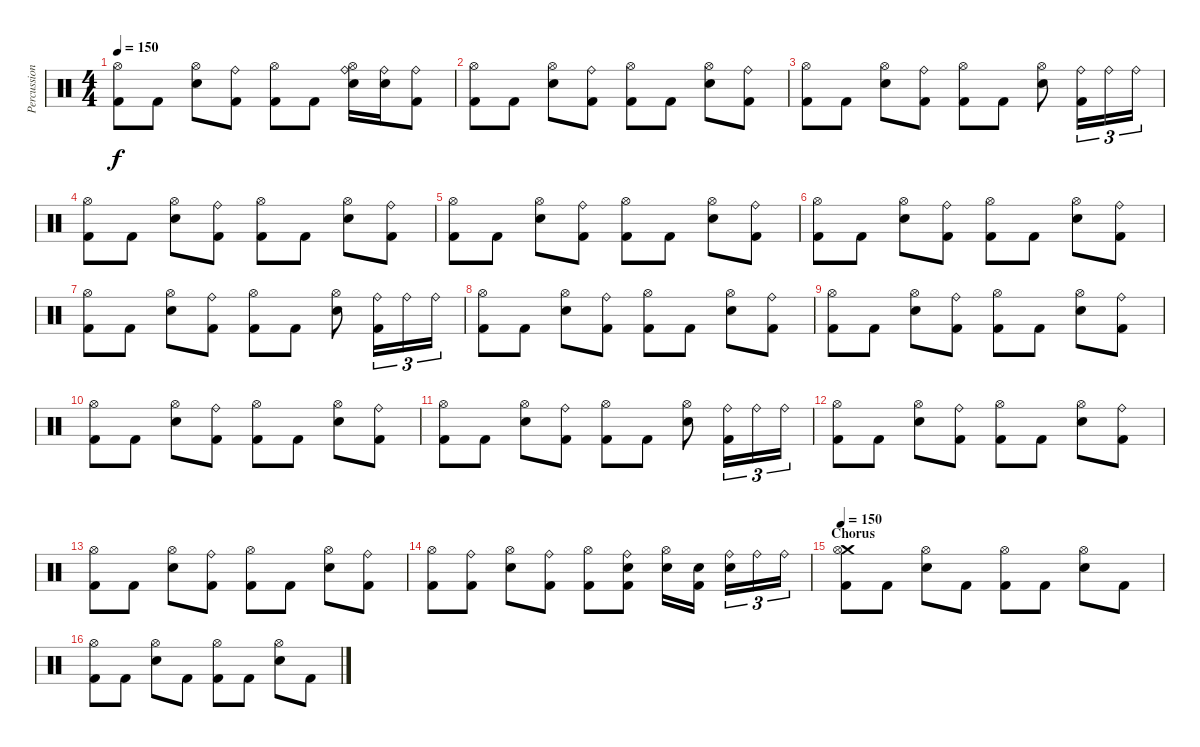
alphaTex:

\track ("Percussion" "Percussion") {instrument percussion}
\staff {score}
\articulation defaults
\ts (4 4)
\tempo 150
\clef neutral
\ks c
("Kick (hit) 2" "Hi-Hat (open)").8{dy f} "Kick (hit) 2".8 ("Electric Snare (hit)" "Hi-Hat (open)").8 ("Kick (hit) 2" "Ride (bell)").8 ("Kick (hit) 2" "Hi-Hat (open)").8 "Kick (hit) 2".8 ("Electric Snare (hit)" "Hi-Hat (open)" "Ride (bell)").16 ("Electric Snare (hit)" "Ride (bell)").16 ("Kick (hit) 2" "Ride (bell)").8 |
("Kick (hit) 2" "Hi-Hat (open)").8 "Kick (hit) 2".8 ("Electric Snare (hit)" "Hi-Hat (open)").8 ("Kick (hit) 2" "Ride (bell)").8 ("Kick (hit) 2" "Hi-Hat (open)").8 "Kick (hit) 2".8 ("Electric Snare (hit)" "Hi-Hat (open)").8 ("Kick (hit) 2" "Ride (bell)").8 |
("Kick (hit) 2" "Hi-Hat (open)").8 "Kick (hit) 2".8 ("Electric Snare (hit)" "Hi-Hat (open)").8 ("Kick (hit) 2" "Ride (bell)").8 ("Kick (hit) 2" "Hi-Hat (open)").8 "Kick (hit) 2".8 ("Electric Snare (hit)" "Hi-Hat (open)").8 ("Kick (hit) 2" "Ride (bell)").16{tu (3 2)} "Ride (bell)".16{tu (3 2)} "Ride (bell)".16{tu (3 2)} |
("Kick (hit) 2" "Hi-Hat (open)").8 "Kick (hit) 2".8 ("Electric Snare (hit)" "Hi-Hat (open)").8 ("Kick (hit) 2" "Ride (bell)").8 ("Kick (hit) 2" "Hi-Hat (open)").8 "Kick (hit) 2".8 ("Electric Snare (hit)" "Hi-Hat (open)").8 ("Kick (hit) 2" "Ride (bell)").8 |
("Kick (hit) 2" "Hi-Hat (open)").8 "Kick (hit) 2".8 ("Electric Snare (hit)" "Hi-Hat (open)").8 ("Kick (hit) 2" "Ride (bell)").8 ("Kick (hit) 2" "Hi-Hat (open)").8 "Kick (hit) 2".8 ("Electric Snare (hit)" "Hi-Hat (open)").8 ("Kick (hit) 2" "Ride (bell)").8 |
("Kick (hit) 2" "Hi-Hat (open)").8 "Kick (hit) 2".8 ("Electric Snare (hit)" "Hi-Hat (open)").8 ("Kick (hit) 2" "Ride (bell)").8 ("Kick (hit) 2" "Hi-Hat (open)").8 "Kick (hit) 2".8 ("Electric Snare (hit)" "Hi-Hat (open)").8 ("Kick (hit) 2" "Ride (bell)").8 |
("Kick (hit) 2" "Hi-Hat (open)").8 "Kick (hit) 2".8 ("Electric Snare (hit)" "Hi-Hat (open)").8 ("Kick (hit) 2" "Ride (bell)").8 ("Kick (hit) 2" "Hi-Hat (open)").8 "Kick (hit) 2".8 ("Electric Snare (hit)" "Hi-Hat (open)").8 ("Kick (hit) 2" "Ride (bell)").16{tu (3 2)} "Ride (bell)".16{tu (3 2)} "Ride (bell)".16{tu (3 2)} |
("Kick (hit) 2" "Hi-Hat (open)").8 "Kick (hit) 2".8 ("Electric Snare (hit)" "Hi-Hat (open)").8 ("Kick (hit) 2" "Ride (bell)").8 ("Kick (hit) 2" "Hi-Hat (open)").8 "Kick (hit) 2".8 ("Electric Snare (hit)" "Hi-Hat (open)").8 ("Kick (hit) 2" "Ride (bell)").8 |
("Kick (hit) 2" "Hi-Hat (open)").8 "Kick (hit) 2".8 ("Electric Snare (hit)" "Hi-Hat (open)").8 ("Kick (hit) 2" "Ride (bell)").8 ("Kick (hit) 2" "Hi-Hat (open)").8 "Kick (hit) 2".8 ("Electric Snare (hit)" "Hi-Hat (open)").8 ("Kick (hit) 2" "Ride (bell)").8 |
("Kick (hit) 2" "Hi-Hat (open)").8 "Kick (hit) 2".8 ("Electric Snare (hit)" "Hi-Hat (open)").8 ("Kick (hit) 2" "Ride (bell)").8 ("Kick (hit) 2" "Hi-Hat (open)").8 "Kick (hit) 2".8 ("Electric Snare (hit)" "Hi-Hat (open)").8 ("Kick (hit) 2" "Ride (bell)").8 |
("Kick (hit) 2" "Hi-Hat (open)").8 "Kick (hit) 2".8 ("Electric Snare (hit)" "Hi-Hat (open)").8 ("Kick (hit) 2" "Ride (bell)").8 ("Kick (hit) 2" "Hi-Hat (open)").8 "Kick (hit) 2".8 ("Electric Snare (hit)" "Hi-Hat (open)").8 ("Kick (hit) 2" "Ride (bell)").16{tu (3 2)} "Ride (bell)".16{tu (3 2)} "Ride (bell)".16{tu (3 2)} |
("Kick (hit) 2" "Hi-Hat (open)").8 "Kick (hit) 2".8 ("Electric Snare (hit)" "Hi-Hat (open)").8 ("Kick (hit) 2" "Ride (bell)").8 ("Kick (hit) 2" "Hi-Hat (open)").8 "Kick (hit) 2".8 ("Electric Snare (hit)" "Hi-Hat (open)").8 ("Kick (hit) 2" "Ride (bell)").8 |
("Kick (hit) 2" "Hi-Hat (open)").8 "Kick (hit) 2".8 ("Electric Snare (hit)" "Hi-Hat (open)").8 ("Kick (hit) 2" "Ride (bell)").8 ("Kick (hit) 2" "Hi-Hat (open)").8 "Kick (hit) 2".8 ("Electric Snare (hit)" "Hi-Hat (open)").8 ("Kick (hit) 2" "Ride (bell)").8 |
("Kick (hit) 2" "Hi-Hat (open)").8 ("Kick (hit) 2" "Ride (bell)").8 ("Electric Snare (hit)" "Hi-Hat (open)").8 ("Kick (hit) 2" "Ride (bell)").8 ("Kick (hit) 2" "Hi-Hat (open)").8 ("Kick (hit) 2" "Snare (hit) 2" "Ride (bell)").8 ("Snare (hit) 2" "Hi-Hat (open)").16 ("Kick (hit) 2" "Snare (hit) 2").16 ("Electric Snare (hit)" "Ride (bell)").16{tu (3 2)} "Ride (bell)".16{tu (3 2)} "Ride (bell)".16{tu (3 2)} |
\section ("" "Chorus")
\tempo 150
("Kick (hit) 2" "Crash medium (hit)" "Hi-Hat (open)").8 "Kick (hit) 2".8 ("Electric Snare (hit)" "Hi-Hat (open)").8 "Kick (hit) 2".8 ("Kick (hit) 2" "Hi-Hat (open)").8 "Kick (hit) 2".8 ("Electric Snare (hit)" "Hi-Hat (open)").8 "Kick (hit) 2".8 |
("Kick (hit) 2" "Hi-Hat (open)").8 "Kick (hit) 2".8 ("Electric Snare (hit)" "Hi-Hat (open)").8 "Kick (hit) 2".8 ("Kick (hit) 2" "Hi-Hat (open)").8 "Kick (hit) 2".8 ("Electric Snare (hit)" "Hi-Hat (open)").8 "Kick (hit) 2".8
